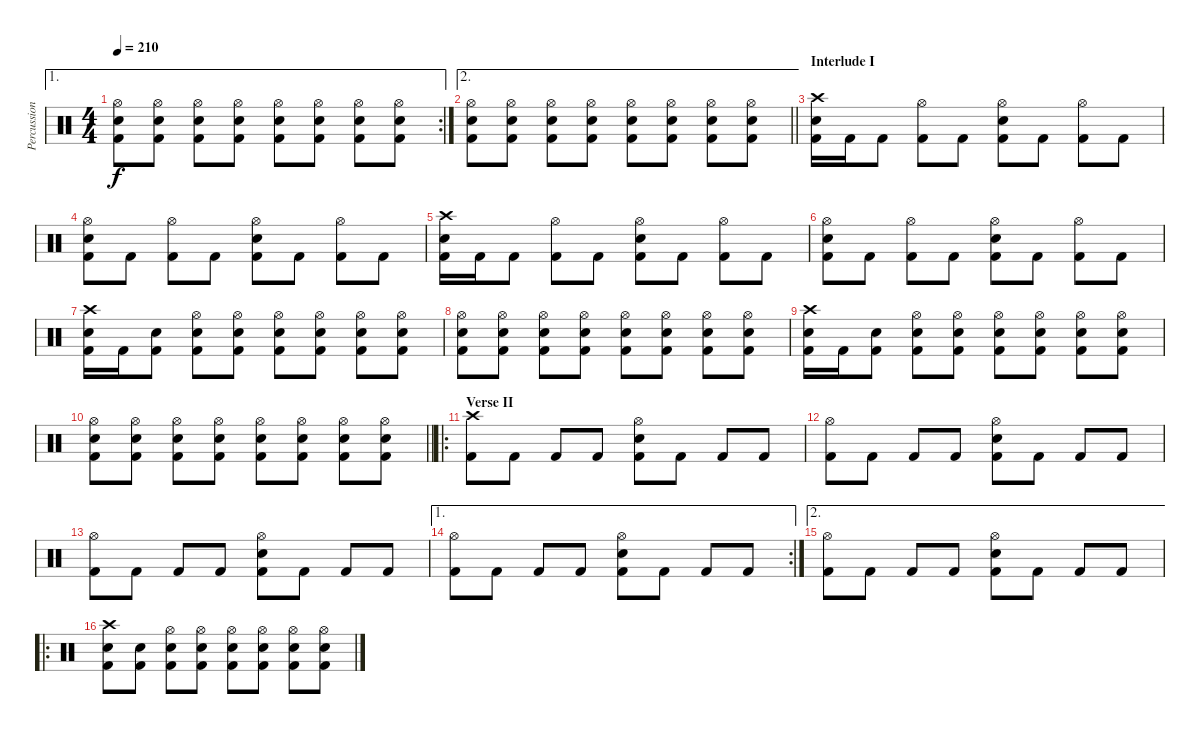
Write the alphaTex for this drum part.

\track ("Percussion" "Percussion") {instrument percussion}
\staff {score}
\articulation defaults
\ae 1
\rc 2
\ts (4 4)
\tempo 210
\clef neutral
\ks c
("Hi-Hat (open)" "Snare (hit) 2" "Kick (hit) 2").8{dy f} ("Hi-Hat (open)" "Snare (hit) 2" "Kick (hit) 2").8 ("Hi-Hat (open)" "Snare (hit) 2" "Kick (hit) 2").8 ("Hi-Hat (open)" "Snare (hit) 2" "Kick (hit) 2").8 ("Hi-Hat (open)" "Snare (hit) 2" "Kick (hit) 2").8 ("Hi-Hat (open)" "Snare (hit) 2" "Kick (hit) 2").8 ("Hi-Hat (open)" "Snare (hit) 2" "Kick (hit) 2").8 ("Hi-Hat (open)" "Snare (hit) 2" "Kick (hit) 2").8 |
\ae 2
\barLineRight lightlight
("Hi-Hat (open)" "Snare (hit) 2" "Kick (hit) 2").8 ("Hi-Hat (open)" "Snare (hit) 2" "Kick (hit) 2").8 ("Hi-Hat (open)" "Snare (hit) 2" "Kick (hit) 2").8 ("Hi-Hat (open)" "Snare (hit) 2" "Kick (hit) 2").8 ("Hi-Hat (open)" "Snare (hit) 2" "Kick (hit) 2").8 ("Hi-Hat (open)" "Snare (hit) 2" "Kick (hit) 2").8 ("Hi-Hat (open)" "Snare (hit) 2" "Kick (hit) 2").8 ("Hi-Hat (open)" "Snare (hit) 2" "Kick (hit) 2").8 |
\section ("" "Interlude I")
("Crash high (hit)" "Snare (hit) 2" "Kick (hit) 2").16 "Kick (hit) 2".16 "Kick (hit) 2".8 ("Hi-Hat (open)" "Kick (hit) 2").8 "Kick (hit) 2".8 ("Hi-Hat (open)" "Snare (hit) 2" "Kick (hit) 2").8 "Kick (hit) 2".8 ("Hi-Hat (open)" "Kick (hit) 2").8 "Kick (hit) 2".8 |
("Hi-Hat (open)" "Snare (hit) 2" "Kick (hit) 2").8 "Kick (hit) 2".8 ("Hi-Hat (open)" "Kick (hit) 2").8 "Kick (hit) 2".8 ("Hi-Hat (open)" "Snare (hit) 2" "Kick (hit) 2").8 "Kick (hit) 2".8 ("Hi-Hat (open)" "Kick (hit) 2").8 "Kick (hit) 2".8 |
("Crash high (hit)" "Snare (hit) 2" "Kick (hit) 2").16 "Kick (hit) 2".16 "Kick (hit) 2".8 ("Hi-Hat (open)" "Kick (hit) 2").8 "Kick (hit) 2".8 ("Hi-Hat (open)" "Snare (hit) 2" "Kick (hit) 2").8 "Kick (hit) 2".8 ("Hi-Hat (open)" "Kick (hit) 2").8 "Kick (hit) 2".8 |
("Hi-Hat (open)" "Snare (hit) 2" "Kick (hit) 2").8 "Kick (hit) 2".8 ("Hi-Hat (open)" "Kick (hit) 2").8 "Kick (hit) 2".8 ("Hi-Hat (open)" "Snare (hit) 2" "Kick (hit) 2").8 "Kick (hit) 2".8 ("Hi-Hat (open)" "Kick (hit) 2").8 "Kick (hit) 2".8 |
("Crash high (hit)" "Snare (hit) 2" "Kick (hit) 2").16 "Kick (hit) 2".16 ("Snare (hit) 2" "Kick (hit) 2").8 ("Hi-Hat (open)" "Snare (hit) 2" "Kick (hit) 2").8 ("Hi-Hat (open)" "Snare (hit) 2" "Kick (hit) 2").8 ("Hi-Hat (open)" "Snare (hit) 2" "Kick (hit) 2").8 ("Hi-Hat (open)" "Snare (hit) 2" "Kick (hit) 2").8 ("Hi-Hat (open)" "Snare (hit) 2" "Kick (hit) 2").8 ("Hi-Hat (open)" "Snare (hit) 2" "Kick (hit) 2").8 |
("Hi-Hat (open)" "Snare (hit) 2" "Kick (hit) 2").8 ("Hi-Hat (open)" "Snare (hit) 2" "Kick (hit) 2").8 ("Hi-Hat (open)" "Snare (hit) 2" "Kick (hit) 2").8 ("Hi-Hat (open)" "Snare (hit) 2" "Kick (hit) 2").8 ("Hi-Hat (open)" "Snare (hit) 2" "Kick (hit) 2").8 ("Hi-Hat (open)" "Snare (hit) 2" "Kick (hit) 2").8 ("Hi-Hat (open)" "Snare (hit) 2" "Kick (hit) 2").8 ("Hi-Hat (open)" "Snare (hit) 2" "Kick (hit) 2").8 |
("Crash high (hit)" "Snare (hit) 2" "Kick (hit) 2").16 "Kick (hit) 2".16 ("Snare (hit) 2" "Kick (hit) 2").8 ("Hi-Hat (open)" "Snare (hit) 2" "Kick (hit) 2").8 ("Hi-Hat (open)" "Snare (hit) 2" "Kick (hit) 2").8 ("Hi-Hat (open)" "Snare (hit) 2" "Kick (hit) 2").8 ("Hi-Hat (open)" "Snare (hit) 2" "Kick (hit) 2").8 ("Hi-Hat (open)" "Snare (hit) 2" "Kick (hit) 2").8 ("Hi-Hat (open)" "Snare (hit) 2" "Kick (hit) 2").8 |
\barLineRight lightlight
("Hi-Hat (open)" "Snare (hit) 2" "Kick (hit) 2").8 ("Hi-Hat (open)" "Snare (hit) 2" "Kick (hit) 2").8 ("Hi-Hat (open)" "Snare (hit) 2" "Kick (hit) 2").8 ("Hi-Hat (open)" "Snare (hit) 2" "Kick (hit) 2").8 ("Hi-Hat (open)" "Snare (hit) 2" "Kick (hit) 2").8 ("Hi-Hat (open)" "Snare (hit) 2" "Kick (hit) 2").8 ("Hi-Hat (open)" "Snare (hit) 2" "Kick (hit) 2").8 ("Hi-Hat (open)" "Snare (hit) 2" "Kick (hit) 2").8 |
\ro
\section ("" "Verse II")
("Crash high (hit)" "Kick (hit) 2").8 "Kick (hit) 2".8 "Kick (hit) 2".8 "Kick (hit) 2".8 ("Hi-Hat (open)" "Snare (hit) 2" "Kick (hit) 2").8 "Kick (hit) 2".8 "Kick (hit) 2".8 "Kick (hit) 2".8 |
("Hi-Hat (open)" "Kick (hit) 2").8 "Kick (hit) 2".8 "Kick (hit) 2".8 "Kick (hit) 2".8 ("Hi-Hat (open)" "Snare (hit) 2" "Kick (hit) 2").8 "Kick (hit) 2".8 "Kick (hit) 2".8 "Kick (hit) 2".8 |
("Hi-Hat (open)" "Kick (hit) 2").8 "Kick (hit) 2".8 "Kick (hit) 2".8 "Kick (hit) 2".8 ("Hi-Hat (open)" "Snare (hit) 2" "Kick (hit) 2").8 "Kick (hit) 2".8 "Kick (hit) 2".8 "Kick (hit) 2".8 |
\ae 1
\rc 2
("Hi-Hat (open)" "Kick (hit) 2").8 "Kick (hit) 2".8 "Kick (hit) 2".8 "Kick (hit) 2".8 ("Hi-Hat (open)" "Snare (hit) 2" "Kick (hit) 2").8 "Kick (hit) 2".8 "Kick (hit) 2".8 "Kick (hit) 2".8 |
\ae 2
("Hi-Hat (open)" "Kick (hit) 2").8 "Kick (hit) 2".8 "Kick (hit) 2".8 "Kick (hit) 2".8 ("Hi-Hat (open)" "Snare (hit) 2" "Kick (hit) 2").8 "Kick (hit) 2".8 "Kick (hit) 2".8 "Kick (hit) 2".8 |
\ro
("Crash high (hit)" "Snare (hit) 2" "Kick (hit) 2").8 ("Snare (hit) 2" "Kick (hit) 2").8 ("Hi-Hat (open)" "Snare (hit) 2" "Kick (hit) 2").8 ("Hi-Hat (open)" "Snare (hit) 2" "Kick (hit) 2").8 ("Hi-Hat (open)" "Snare (hit) 2" "Kick (hit) 2").8 ("Hi-Hat (open)" "Snare (hit) 2" "Kick (hit) 2").8 ("Hi-Hat (open)" "Snare (hit) 2" "Kick (hit) 2").8 ("Hi-Hat (open)" "Snare (hit) 2" "Kick (hit) 2").8
